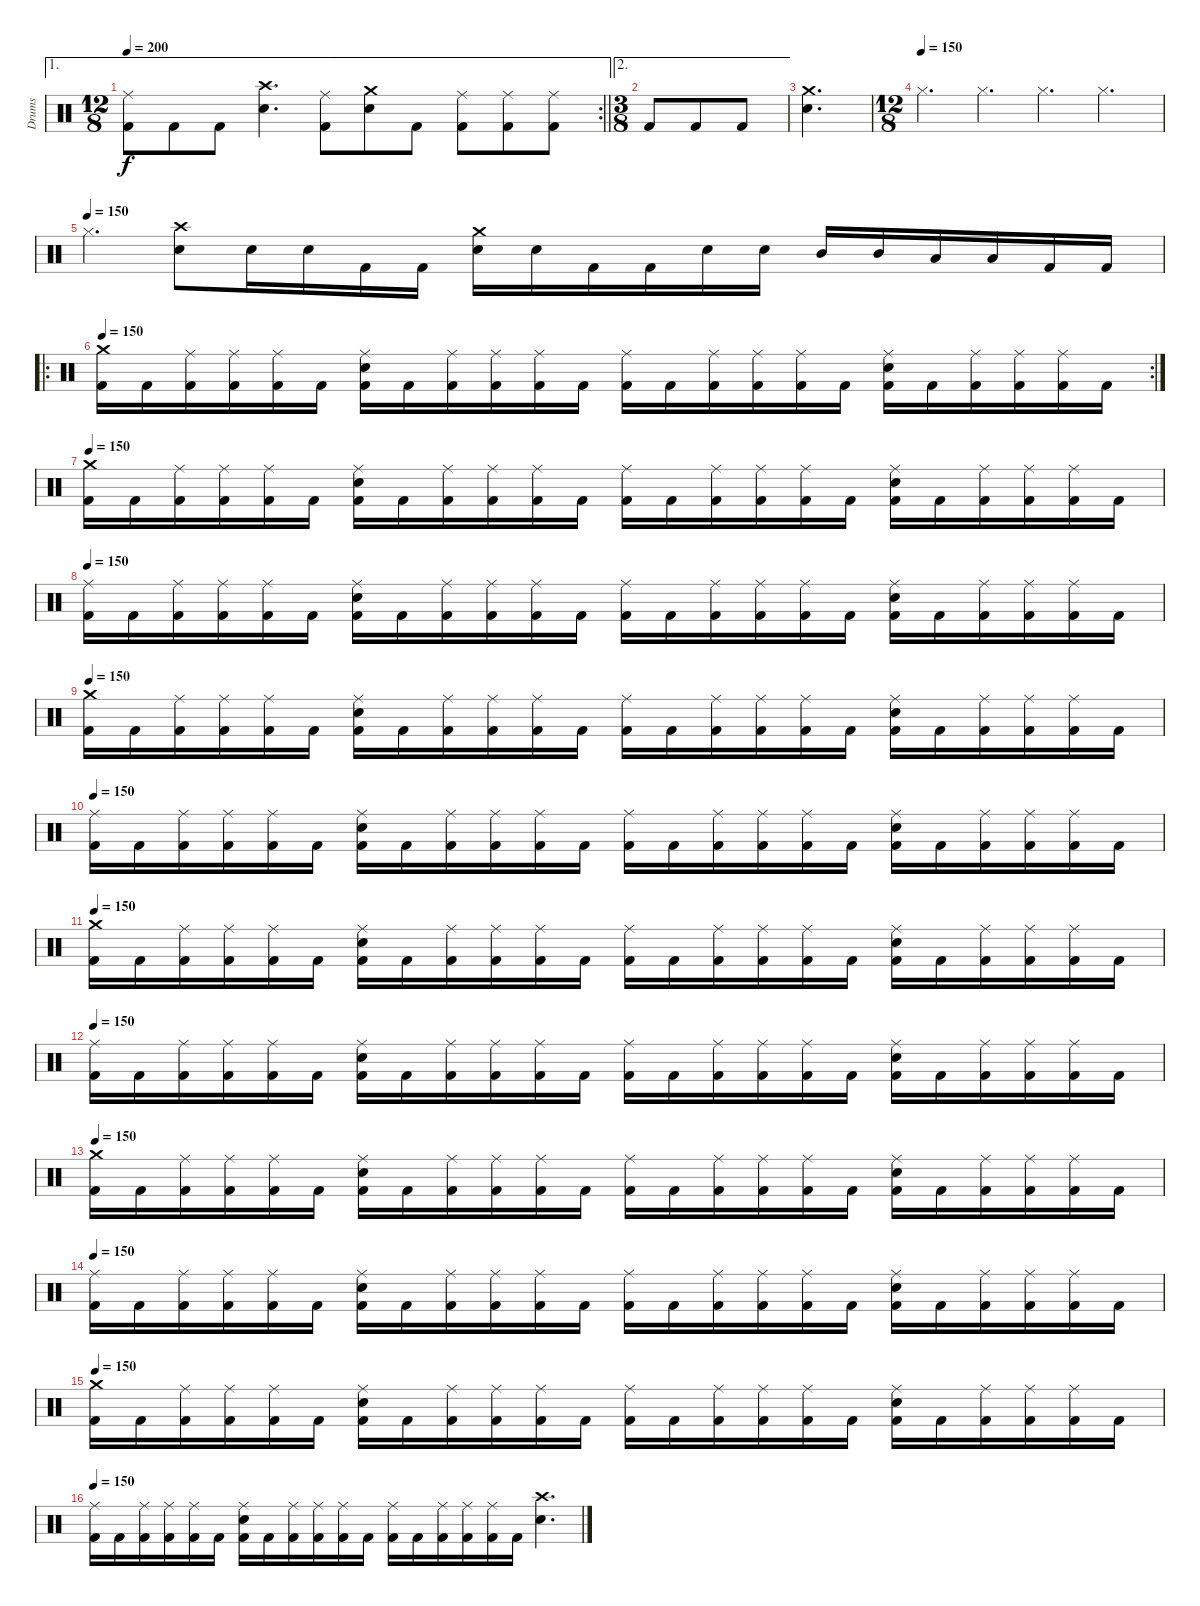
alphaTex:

\track ("Drums" "Drums") {instrument percussion}
\staff {score}
\articulation defaults
\ae 1
\rc 2
\ts (12 8)
\tempo 200
\clef neutral
\barLineRight lightlight
\ks c
("Ride (middle)" "Kick (hit) 2").8{dy f} "Kick (hit) 2".8 "Kick (hit) 2".8 ("Crash high (hit)" "Electric Snare (hit)").4{d} ("Ride (middle)" "Kick (hit) 2").8 ("Crash medium (hit)" "Electric Snare (hit)").8 "Kick (hit) 2".8 ("Ride (middle)" "Kick (hit) 2").8 ("Ride (middle)" "Kick (hit) 2").8 ("Ride (middle)" "Kick (hit) 2").8 |
\ae 2
\ts (3 8)
"Kick (hit) 2".8 "Kick (hit) 2".8 "Kick (hit) 2".8 |
("Crash medium (hit)" "Electric Snare (hit)").4{d} |
\ts (12 8)
\tempo (150)
"Hi-Hat (closed)".4{d} "Hi-Hat (closed)".4{d} "Hi-Hat (closed)".4{d} "Hi-Hat (closed)".4{d} |
\tempo (150)
"Hi-Hat (closed)".4{d} ("Crash high (hit)" "Electric Snare (hit)").8 "Electric Snare (hit)".16 "Electric Snare (hit)".16 "Kick (hit) 2".16 "Kick (hit) 2".16 ("Crash medium (hit)" "Electric Snare (hit)").16 "Electric Snare (hit)".16 "Kick (hit) 2".16 "Kick (hit) 2".16 "Electric Snare (hit)".16 "Electric Snare (hit)".16 "Mid Tom (hit)".16 "Mid Tom (hit)".16 "Low Tom (hit)".16 "Low Tom (hit)".16 "Kick (hit) 2".16 "Kick (hit) 2".16 |
\ro
\rc 2
\tempo 150
("Crash medium (hit)" "Kick (hit) 2").16 "Kick (hit) 2".16 ("Ride (middle)" "Kick (hit) 2").16 ("Ride (middle)" "Kick (hit) 2").16 ("Ride (middle)" "Kick (hit) 2").16 "Kick (hit) 2".16 ("Ride (middle)" "Electric Snare (hit)" "Kick (hit) 2").16 "Kick (hit) 2".16 ("Ride (middle)" "Kick (hit) 2").16 ("Ride (middle)" "Kick (hit) 2").16 ("Ride (middle)" "Kick (hit) 2").16 "Kick (hit) 2".16 ("Ride (middle)" "Kick (hit) 2").16 "Kick (hit) 2".16 ("Ride (middle)" "Kick (hit) 2").16 ("Ride (middle)" "Kick (hit) 2").16 ("Ride (middle)" "Kick (hit) 2").16 "Kick (hit) 2".16 ("Ride (middle)" "Electric Snare (hit)" "Kick (hit) 2").16 "Kick (hit) 2".16 ("Ride (middle)" "Kick (hit) 2").16 ("Ride (middle)" "Kick (hit) 2").16 ("Ride (middle)" "Kick (hit) 2").16 "Kick (hit) 2".16 |
\tempo 150
("Crash medium (hit)" "Kick (hit) 2").16 "Kick (hit) 2".16 ("Ride (middle)" "Kick (hit) 2").16 ("Ride (middle)" "Kick (hit) 2").16 ("Ride (middle)" "Kick (hit) 2").16 "Kick (hit) 2".16 ("Ride (middle)" "Electric Snare (hit)" "Kick (hit) 2").16 "Kick (hit) 2".16 ("Ride (middle)" "Kick (hit) 2").16 ("Ride (middle)" "Kick (hit) 2").16 ("Ride (middle)" "Kick (hit) 2").16 "Kick (hit) 2".16 ("Ride (middle)" "Kick (hit) 2").16 "Kick (hit) 2".16 ("Ride (middle)" "Kick (hit) 2").16 ("Ride (middle)" "Kick (hit) 2").16 ("Ride (middle)" "Kick (hit) 2").16 "Kick (hit) 2".16 ("Ride (middle)" "Electric Snare (hit)" "Kick (hit) 2").16 "Kick (hit) 2".16 ("Ride (middle)" "Kick (hit) 2").16 ("Ride (middle)" "Kick (hit) 2").16 ("Ride (middle)" "Kick (hit) 2").16 "Kick (hit) 2".16 |
\tempo 150
("Ride (middle)" "Kick (hit) 2").16 "Kick (hit) 2".16 ("Ride (middle)" "Kick (hit) 2").16 ("Ride (middle)" "Kick (hit) 2").16 ("Ride (middle)" "Kick (hit) 2").16 "Kick (hit) 2".16 ("Ride (middle)" "Electric Snare (hit)" "Kick (hit) 2").16 "Kick (hit) 2".16 ("Ride (middle)" "Kick (hit) 2").16 ("Ride (middle)" "Kick (hit) 2").16 ("Ride (middle)" "Kick (hit) 2").16 "Kick (hit) 2".16 ("Ride (middle)" "Kick (hit) 2").16 "Kick (hit) 2".16 ("Ride (middle)" "Kick (hit) 2").16 ("Ride (middle)" "Kick (hit) 2").16 ("Ride (middle)" "Kick (hit) 2").16 "Kick (hit) 2".16 ("Ride (middle)" "Electric Snare (hit)" "Kick (hit) 2").16 "Kick (hit) 2".16 ("Ride (middle)" "Kick (hit) 2").16 ("Ride (middle)" "Kick (hit) 2").16 ("Ride (middle)" "Kick (hit) 2").16 "Kick (hit) 2".16 |
\tempo 150
("Crash medium (hit)" "Kick (hit) 2").16 "Kick (hit) 2".16 ("Ride (middle)" "Kick (hit) 2").16 ("Ride (middle)" "Kick (hit) 2").16 ("Ride (middle)" "Kick (hit) 2").16 "Kick (hit) 2".16 ("Ride (middle)" "Electric Snare (hit)" "Kick (hit) 2").16 "Kick (hit) 2".16 ("Ride (middle)" "Kick (hit) 2").16 ("Ride (middle)" "Kick (hit) 2").16 ("Ride (middle)" "Kick (hit) 2").16 "Kick (hit) 2".16 ("Ride (middle)" "Kick (hit) 2").16 "Kick (hit) 2".16 ("Ride (middle)" "Kick (hit) 2").16 ("Ride (middle)" "Kick (hit) 2").16 ("Ride (middle)" "Kick (hit) 2").16 "Kick (hit) 2".16 ("Ride (middle)" "Electric Snare (hit)" "Kick (hit) 2").16 "Kick (hit) 2".16 ("Ride (middle)" "Kick (hit) 2").16 ("Ride (middle)" "Kick (hit) 2").16 ("Ride (middle)" "Kick (hit) 2").16 "Kick (hit) 2".16 |
\tempo 150
("Ride (middle)" "Kick (hit) 2").16 "Kick (hit) 2".16 ("Ride (middle)" "Kick (hit) 2").16 ("Ride (middle)" "Kick (hit) 2").16 ("Ride (middle)" "Kick (hit) 2").16 "Kick (hit) 2".16 ("Ride (middle)" "Electric Snare (hit)" "Kick (hit) 2").16 "Kick (hit) 2".16 ("Ride (middle)" "Kick (hit) 2").16 ("Ride (middle)" "Kick (hit) 2").16 ("Ride (middle)" "Kick (hit) 2").16 "Kick (hit) 2".16 ("Ride (middle)" "Kick (hit) 2").16 "Kick (hit) 2".16 ("Ride (middle)" "Kick (hit) 2").16 ("Ride (middle)" "Kick (hit) 2").16 ("Ride (middle)" "Kick (hit) 2").16 "Kick (hit) 2".16 ("Ride (middle)" "Electric Snare (hit)" "Kick (hit) 2").16 "Kick (hit) 2".16 ("Ride (middle)" "Kick (hit) 2").16 ("Ride (middle)" "Kick (hit) 2").16 ("Ride (middle)" "Kick (hit) 2").16 "Kick (hit) 2".16 |
\tempo 150
("Crash medium (hit)" "Kick (hit) 2").16 "Kick (hit) 2".16 ("Ride (middle)" "Kick (hit) 2").16 ("Ride (middle)" "Kick (hit) 2").16 ("Ride (middle)" "Kick (hit) 2").16 "Kick (hit) 2".16 ("Ride (middle)" "Electric Snare (hit)" "Kick (hit) 2").16 "Kick (hit) 2".16 ("Ride (middle)" "Kick (hit) 2").16 ("Ride (middle)" "Kick (hit) 2").16 ("Ride (middle)" "Kick (hit) 2").16 "Kick (hit) 2".16 ("Ride (middle)" "Kick (hit) 2").16 "Kick (hit) 2".16 ("Ride (middle)" "Kick (hit) 2").16 ("Ride (middle)" "Kick (hit) 2").16 ("Ride (middle)" "Kick (hit) 2").16 "Kick (hit) 2".16 ("Ride (middle)" "Electric Snare (hit)" "Kick (hit) 2").16 "Kick (hit) 2".16 ("Ride (middle)" "Kick (hit) 2").16 ("Ride (middle)" "Kick (hit) 2").16 ("Ride (middle)" "Kick (hit) 2").16 "Kick (hit) 2".16 |
\tempo 150
("Ride (middle)" "Kick (hit) 2").16 "Kick (hit) 2".16 ("Ride (middle)" "Kick (hit) 2").16 ("Ride (middle)" "Kick (hit) 2").16 ("Ride (middle)" "Kick (hit) 2").16 "Kick (hit) 2".16 ("Ride (middle)" "Electric Snare (hit)" "Kick (hit) 2").16 "Kick (hit) 2".16 ("Ride (middle)" "Kick (hit) 2").16 ("Ride (middle)" "Kick (hit) 2").16 ("Ride (middle)" "Kick (hit) 2").16 "Kick (hit) 2".16 ("Ride (middle)" "Kick (hit) 2").16 "Kick (hit) 2".16 ("Ride (middle)" "Kick (hit) 2").16 ("Ride (middle)" "Kick (hit) 2").16 ("Ride (middle)" "Kick (hit) 2").16 "Kick (hit) 2".16 ("Ride (middle)" "Electric Snare (hit)" "Kick (hit) 2").16 "Kick (hit) 2".16 ("Ride (middle)" "Kick (hit) 2").16 ("Ride (middle)" "Kick (hit) 2").16 ("Ride (middle)" "Kick (hit) 2").16 "Kick (hit) 2".16 |
\tempo 150
("Crash medium (hit)" "Kick (hit) 2").16 "Kick (hit) 2".16 ("Ride (middle)" "Kick (hit) 2").16 ("Ride (middle)" "Kick (hit) 2").16 ("Ride (middle)" "Kick (hit) 2").16 "Kick (hit) 2".16 ("Ride (middle)" "Electric Snare (hit)" "Kick (hit) 2").16 "Kick (hit) 2".16 ("Ride (middle)" "Kick (hit) 2").16 ("Ride (middle)" "Kick (hit) 2").16 ("Ride (middle)" "Kick (hit) 2").16 "Kick (hit) 2".16 ("Ride (middle)" "Kick (hit) 2").16 "Kick (hit) 2".16 ("Ride (middle)" "Kick (hit) 2").16 ("Ride (middle)" "Kick (hit) 2").16 ("Ride (middle)" "Kick (hit) 2").16 "Kick (hit) 2".16 ("Ride (middle)" "Electric Snare (hit)" "Kick (hit) 2").16 "Kick (hit) 2".16 ("Ride (middle)" "Kick (hit) 2").16 ("Ride (middle)" "Kick (hit) 2").16 ("Ride (middle)" "Kick (hit) 2").16 "Kick (hit) 2".16 |
\tempo 150
("Ride (middle)" "Kick (hit) 2").16 "Kick (hit) 2".16 ("Ride (middle)" "Kick (hit) 2").16 ("Ride (middle)" "Kick (hit) 2").16 ("Ride (middle)" "Kick (hit) 2").16 "Kick (hit) 2".16 ("Ride (middle)" "Electric Snare (hit)" "Kick (hit) 2").16 "Kick (hit) 2".16 ("Ride (middle)" "Kick (hit) 2").16 ("Ride (middle)" "Kick (hit) 2").16 ("Ride (middle)" "Kick (hit) 2").16 "Kick (hit) 2".16 ("Ride (middle)" "Kick (hit) 2").16 "Kick (hit) 2".16 ("Ride (middle)" "Kick (hit) 2").16 ("Ride (middle)" "Kick (hit) 2").16 ("Ride (middle)" "Kick (hit) 2").16 "Kick (hit) 2".16 ("Ride (middle)" "Electric Snare (hit)" "Kick (hit) 2").16 "Kick (hit) 2".16 ("Ride (middle)" "Kick (hit) 2").16 ("Ride (middle)" "Kick (hit) 2").16 ("Ride (middle)" "Kick (hit) 2").16 "Kick (hit) 2".16 |
\tempo 150
("Crash medium (hit)" "Kick (hit) 2").16 "Kick (hit) 2".16 ("Ride (middle)" "Kick (hit) 2").16 ("Ride (middle)" "Kick (hit) 2").16 ("Ride (middle)" "Kick (hit) 2").16 "Kick (hit) 2".16 ("Ride (middle)" "Electric Snare (hit)" "Kick (hit) 2").16 "Kick (hit) 2".16 ("Ride (middle)" "Kick (hit) 2").16 ("Ride (middle)" "Kick (hit) 2").16 ("Ride (middle)" "Kick (hit) 2").16 "Kick (hit) 2".16 ("Ride (middle)" "Kick (hit) 2").16 "Kick (hit) 2".16 ("Ride (middle)" "Kick (hit) 2").16 ("Ride (middle)" "Kick (hit) 2").16 ("Ride (middle)" "Kick (hit) 2").16 "Kick (hit) 2".16 ("Ride (middle)" "Electric Snare (hit)" "Kick (hit) 2").16 "Kick (hit) 2".16 ("Ride (middle)" "Kick (hit) 2").16 ("Ride (middle)" "Kick (hit) 2").16 ("Ride (middle)" "Kick (hit) 2").16 "Kick (hit) 2".16 |
\tempo 150
("Ride (middle)" "Kick (hit) 2").16 "Kick (hit) 2".16 ("Ride (middle)" "Kick (hit) 2").16 ("Ride (middle)" "Kick (hit) 2").16 ("Ride (middle)" "Kick (hit) 2").16 "Kick (hit) 2".16 ("Ride (middle)" "Electric Snare (hit)" "Kick (hit) 2").16 "Kick (hit) 2".16 ("Ride (middle)" "Kick (hit) 2").16 ("Ride (middle)" "Kick (hit) 2").16 ("Ride (middle)" "Kick (hit) 2").16 "Kick (hit) 2".16 ("Ride (middle)" "Kick (hit) 2").16 "Kick (hit) 2".16 ("Ride (middle)" "Kick (hit) 2").16 ("Ride (middle)" "Kick (hit) 2").16 ("Ride (middle)" "Kick (hit) 2").16 "Kick (hit) 2".16 ("Crash high (hit)" "Electric Snare (hit)").4{d}
